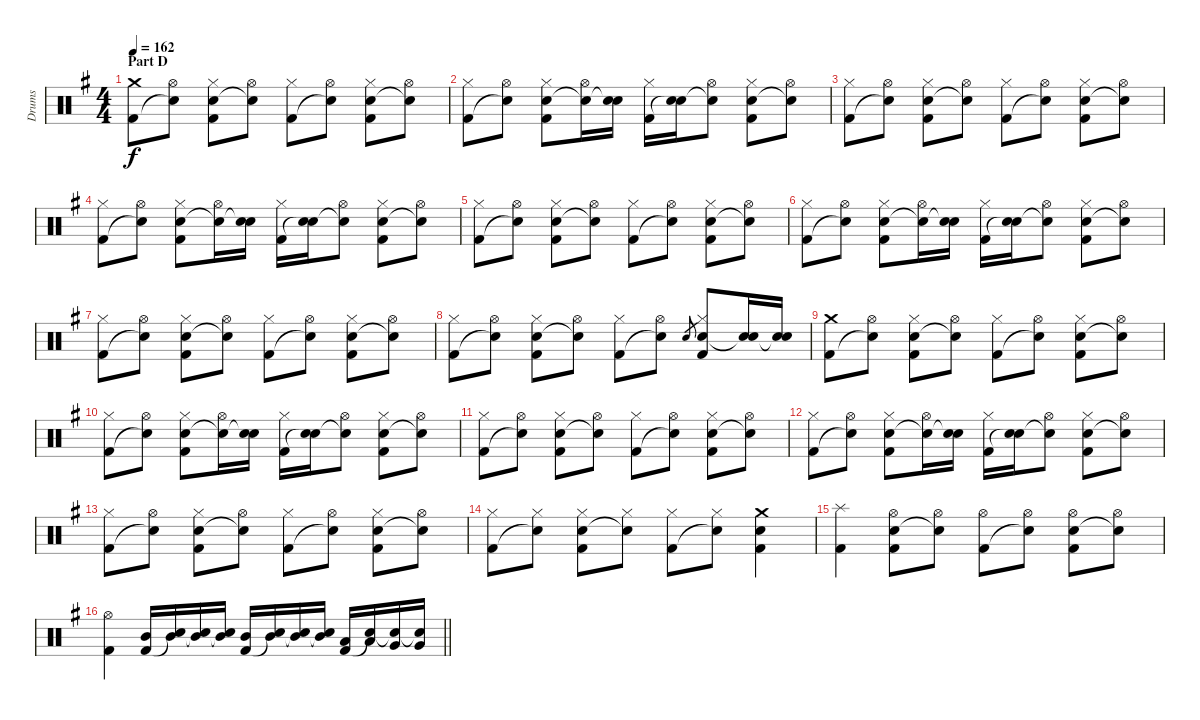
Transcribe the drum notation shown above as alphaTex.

\track ("Drums" "Drums") {instrument percussion}
\staff {score}
\articulation defaults
\ts (4 4)
\section ("" "Part D")
\tempo 162
\clef neutral
\ks g
("Crash medium (hit)" "Kick (hit) 2").8{dy f} ("Hi-Hat (open)" "Snare (hit)"{t}).8 ("Hi-Hat (closed)" "Electric Snare (hit)" "Kick (hit) 2").8 ("Hi-Hat (open)" "Snare (hit)"{t}).8 ("Hi-Hat (closed)" "Kick (hit) 2").8 ("Hi-Hat (open)" "Snare (hit)"{t}).8 ("Hi-Hat (closed)" "Electric Snare (hit)" "Kick (hit) 2").8 ("Hi-Hat (open)" "Snare (hit)"{t}).8 |
("Hi-Hat (closed)" "Kick (hit) 2").8 ("Hi-Hat (open)" "Snare (hit)"{t}).8 ("Hi-Hat (closed)" "Electric Snare (hit)" "Kick (hit) 2").8 ("Hi-Hat (open)" "Snare (hit)"{t}).16 ("Electric Snare (hit)" "Snare (hit)"{t}).16 ("Hi-Hat (closed)" "Kick (hit) 2").16 ("Electric Snare (hit)" "Snare (hit)"{t}).16 ("Hi-Hat (open)" "Snare (hit)"{t}).8 ("Hi-Hat (closed)" "Electric Snare (hit)" "Kick (hit) 2").8 ("Hi-Hat (open)" "Snare (hit)"{t}).8 |
("Hi-Hat (closed)" "Kick (hit) 2").8 ("Hi-Hat (open)" "Snare (hit)"{t}).8 ("Hi-Hat (closed)" "Electric Snare (hit)" "Kick (hit) 2").8 ("Hi-Hat (open)" "Snare (hit)"{t}).8 ("Hi-Hat (closed)" "Kick (hit) 2").8 ("Hi-Hat (open)" "Snare (hit)"{t}).8 ("Hi-Hat (closed)" "Electric Snare (hit)" "Kick (hit) 2").8 ("Hi-Hat (open)" "Snare (hit)"{t}).8 |
("Hi-Hat (closed)" "Kick (hit) 2").8 ("Hi-Hat (open)" "Snare (hit)"{t}).8 ("Hi-Hat (closed)" "Electric Snare (hit)" "Kick (hit) 2").8 ("Hi-Hat (open)" "Snare (hit)"{t}).16 ("Electric Snare (hit)" "Snare (hit)"{t}).16 ("Hi-Hat (closed)" "Kick (hit) 2").16 ("Electric Snare (hit)" "Snare (hit)"{t}).16 ("Hi-Hat (open)" "Snare (hit)"{t}).8 ("Hi-Hat (closed)" "Electric Snare (hit)" "Kick (hit) 2").8 ("Hi-Hat (open)" "Snare (hit)"{t}).8 |
("Hi-Hat (closed)" "Kick (hit) 2").8 ("Hi-Hat (open)" "Snare (hit)"{t}).8 ("Hi-Hat (closed)" "Electric Snare (hit)" "Kick (hit) 2").8 ("Hi-Hat (open)" "Snare (hit)"{t}).8 ("Hi-Hat (closed)" "Kick (hit) 2").8 ("Hi-Hat (open)" "Snare (hit)"{t}).8 ("Hi-Hat (closed)" "Electric Snare (hit)" "Kick (hit) 2").8 ("Hi-Hat (open)" "Snare (hit)"{t}).8 |
("Hi-Hat (closed)" "Kick (hit) 2").8 ("Hi-Hat (open)" "Snare (hit)"{t}).8 ("Hi-Hat (closed)" "Electric Snare (hit)" "Kick (hit) 2").8 ("Hi-Hat (open)" "Snare (hit)"{t}).16 ("Electric Snare (hit)" "Snare (hit)"{t}).16 ("Hi-Hat (closed)" "Kick (hit) 2").16 ("Electric Snare (hit)" "Snare (hit)"{t}).16 ("Hi-Hat (open)" "Snare (hit)"{t}).8 ("Hi-Hat (closed)" "Electric Snare (hit)" "Kick (hit) 2").8 ("Hi-Hat (open)" "Snare (hit)"{t}).8 |
("Hi-Hat (closed)" "Kick (hit) 2").8 ("Hi-Hat (open)" "Snare (hit)"{t}).8 ("Hi-Hat (closed)" "Electric Snare (hit)" "Kick (hit) 2").8 ("Hi-Hat (open)" "Snare (hit)"{t}).8 ("Hi-Hat (closed)" "Kick (hit) 2").8 ("Hi-Hat (open)" "Snare (hit)"{t}).8 ("Hi-Hat (closed)" "Electric Snare (hit)" "Kick (hit) 2").8 ("Hi-Hat (open)" "Snare (hit)"{t}).8 |
("Hi-Hat (closed)" "Kick (hit) 2").8 ("Hi-Hat (open)" "Snare (hit)"{t}).8 ("Hi-Hat (closed)" "Electric Snare (hit)" "Kick (hit) 2").8 ("Hi-Hat (open)" "Snare (hit)"{t}).8 ("Hi-Hat (closed)" "Kick (hit) 2").8 ("Hi-Hat (open)" "Snare (hit)"{t}).8 "Electric Snare (hit)".8{gr} ("Hi-Hat (closed)" "Electric Snare (hit)" "Kick (hit) 2").8 ("Electric Snare (hit)" "Snare (hit)"{t}).16 ("Electric Snare (hit)" "Snare (hit)"{t}).16 |
("Crash medium (hit)" "Kick (hit) 2").8 ("Hi-Hat (open)" "Snare (hit)"{t}).8 ("Hi-Hat (closed)" "Electric Snare (hit)" "Kick (hit) 2").8 ("Hi-Hat (open)" "Snare (hit)"{t}).8 ("Hi-Hat (closed)" "Kick (hit) 2").8 ("Hi-Hat (open)" "Snare (hit)"{t}).8 ("Hi-Hat (closed)" "Electric Snare (hit)" "Kick (hit) 2").8 ("Hi-Hat (open)" "Snare (hit)"{t}).8 |
("Hi-Hat (closed)" "Kick (hit) 2").8 ("Hi-Hat (open)" "Snare (hit)"{t}).8 ("Hi-Hat (closed)" "Electric Snare (hit)" "Kick (hit) 2").8 ("Hi-Hat (open)" "Snare (hit)"{t}).16 ("Electric Snare (hit)" "Snare (hit)"{t}).16 ("Hi-Hat (closed)" "Kick (hit) 2").16 ("Electric Snare (hit)" "Snare (hit)"{t}).16 ("Hi-Hat (open)" "Snare (hit)"{t}).8 ("Hi-Hat (closed)" "Electric Snare (hit)" "Kick (hit) 2").8 ("Hi-Hat (open)" "Snare (hit)"{t}).8 |
("Hi-Hat (closed)" "Kick (hit) 2").8 ("Hi-Hat (open)" "Snare (hit)"{t}).8 ("Hi-Hat (closed)" "Electric Snare (hit)" "Kick (hit) 2").8 ("Hi-Hat (open)" "Snare (hit)"{t}).8 ("Hi-Hat (closed)" "Kick (hit) 2").8 ("Hi-Hat (open)" "Snare (hit)"{t}).8 ("Hi-Hat (closed)" "Electric Snare (hit)" "Kick (hit) 2").8 ("Hi-Hat (open)" "Snare (hit)"{t}).8 |
("Hi-Hat (closed)" "Kick (hit) 2").8 ("Hi-Hat (open)" "Snare (hit)"{t}).8 ("Hi-Hat (closed)" "Electric Snare (hit)" "Kick (hit) 2").8 ("Hi-Hat (open)" "Snare (hit)"{t}).16 ("Electric Snare (hit)" "Snare (hit)"{t}).16 ("Hi-Hat (closed)" "Kick (hit) 2").16 ("Electric Snare (hit)" "Snare (hit)"{t}).16 ("Hi-Hat (open)" "Snare (hit)"{t}).8 ("Hi-Hat (closed)" "Electric Snare (hit)" "Kick (hit) 2").8 ("Hi-Hat (open)" "Snare (hit)"{t}).8 |
("Hi-Hat (closed)" "Kick (hit) 2").8 ("Hi-Hat (open)" "Snare (hit)"{t}).8 ("Hi-Hat (closed)" "Electric Snare (hit)" "Kick (hit) 2").8 ("Hi-Hat (open)" "Snare (hit)"{t}).8 ("Hi-Hat (closed)" "Kick (hit) 2").8 ("Hi-Hat (open)" "Snare (hit)"{t}).8 ("Hi-Hat (closed)" "Electric Snare (hit)" "Kick (hit) 2").8 ("Hi-Hat (open)" "Snare (hit)"{t}).8 |
("Hi-Hat (closed)" "Kick (hit) 2").8 ("Hi-Hat (closed)" "Snare (hit)"{t}).8 ("Hi-Hat (closed)" "Electric Snare (hit)" "Kick (hit) 2").8 ("Hi-Hat (closed)" "Snare (hit)"{t}).8 ("Hi-Hat (closed)" "Kick (hit) 2").8 ("Hi-Hat (closed)" "Snare (hit)"{t}).8 ("Crash medium (hit)" "Electric Snare (hit)" "Kick (hit) 2").4 |
("Splash (hit)" "Kick (hit) 2").4 ("Hi-Hat (open)" "Electric Snare (hit)" "Kick (hit) 2").8 ("Hi-Hat (open)" "Snare (hit)"{t}).8 ("Hi-Hat (open)" "Kick (hit) 2").8 ("Hi-Hat (open)" "Snare (hit)"{t}).8 ("Hi-Hat (open)" "Electric Snare (hit)" "Kick (hit) 2").8 ("Hi-Hat (open)" "Snare (hit)"{t}).8 |
\barLineRight lightlight
("Hi-Hat (open)" "Kick (hit) 2").4 ("Mid Tom (hit)" "Kick (hit) 2").16 ("Mid Tom (hit)" "Snare (hit)"{t}).16 ("Mid Tom (hit)" "Snare (hit)"{t}).16 ("Mid Tom (hit)" "Snare (hit)"{t}).16 ("Mid Tom (hit)" "Kick (hit) 2").16 ("Mid Tom (hit)" "Snare (hit)"{t}).16 ("Mid Tom (hit)" "Snare (hit)"{t}).16 ("Mid Tom (hit)" "Snare (hit)"{t}).16 ("Low Tom (hit)" "Kick (hit) 2").16 ("Low Tom (hit)" "Snare (hit)"{t}).16 ("Very Low Tom (hit)" "Snare (hit)"{t}).16 ("Very Low Tom (hit)" "Snare (hit)"{t}).16
